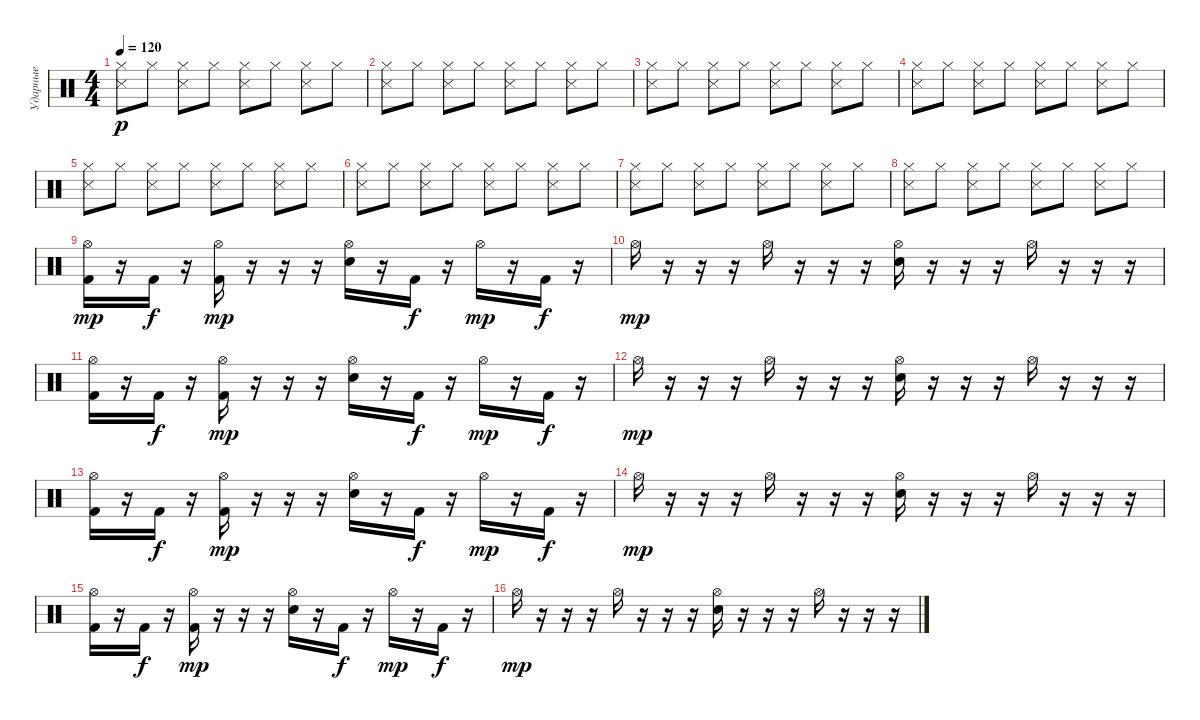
\track ("Ударные" "Ударные") {instrument percussion}
\staff {score}
\articulation defaults
\ts (4 4)
\tempo 120
\clef neutral
\ks c
("Snare (side stick) 3" "Hi-Hat (closed)").8{dy p} "Hi-Hat (closed)".8 ("Snare (side stick) 3" "Hi-Hat (closed)").8 "Hi-Hat (closed)".8 ("Snare (side stick) 3" "Hi-Hat (closed)").8 "Hi-Hat (closed)".8 ("Snare (side stick) 3" "Hi-Hat (closed)").8 "Hi-Hat (closed)".8 |
("Snare (side stick) 3" "Hi-Hat (closed)").8 "Hi-Hat (closed)".8 ("Snare (side stick) 3" "Hi-Hat (closed)").8 "Hi-Hat (closed)".8 ("Snare (side stick) 3" "Hi-Hat (closed)").8 "Hi-Hat (closed)".8 ("Snare (side stick) 3" "Hi-Hat (closed)").8 "Hi-Hat (closed)".8 |
("Snare (side stick) 3" "Hi-Hat (closed)").8 "Hi-Hat (closed)".8 ("Snare (side stick) 3" "Hi-Hat (closed)").8 "Hi-Hat (closed)".8 ("Snare (side stick) 3" "Hi-Hat (closed)").8 "Hi-Hat (closed)".8 ("Snare (side stick) 3" "Hi-Hat (closed)").8 "Hi-Hat (closed)".8 |
("Snare (side stick) 3" "Hi-Hat (closed)").8 "Hi-Hat (closed)".8 ("Snare (side stick) 3" "Hi-Hat (closed)").8 "Hi-Hat (closed)".8 ("Snare (side stick) 3" "Hi-Hat (closed)").8 "Hi-Hat (closed)".8 ("Snare (side stick) 3" "Hi-Hat (closed)").8 "Hi-Hat (closed)".8 |
("Snare (side stick) 3" "Hi-Hat (closed)").8 "Hi-Hat (closed)".8 ("Snare (side stick) 3" "Hi-Hat (closed)").8 "Hi-Hat (closed)".8 ("Snare (side stick) 3" "Hi-Hat (closed)").8 "Hi-Hat (closed)".8 ("Snare (side stick) 3" "Hi-Hat (closed)").8 "Hi-Hat (closed)".8 |
("Snare (side stick) 3" "Hi-Hat (closed)").8 "Hi-Hat (closed)".8 ("Snare (side stick) 3" "Hi-Hat (closed)").8 "Hi-Hat (closed)".8 ("Snare (side stick) 3" "Hi-Hat (closed)").8 "Hi-Hat (closed)".8 ("Snare (side stick) 3" "Hi-Hat (closed)").8 "Hi-Hat (closed)".8 |
("Snare (side stick) 3" "Hi-Hat (closed)").8 "Hi-Hat (closed)".8 ("Snare (side stick) 3" "Hi-Hat (closed)").8 "Hi-Hat (closed)".8 ("Snare (side stick) 3" "Hi-Hat (closed)").8 "Hi-Hat (closed)".8 ("Snare (side stick) 3" "Hi-Hat (closed)").8 "Hi-Hat (closed)".8 |
("Snare (side stick) 3" "Hi-Hat (closed)").8 "Hi-Hat (closed)".8 ("Snare (side stick) 3" "Hi-Hat (closed)").8 "Hi-Hat (closed)".8 ("Snare (side stick) 3" "Hi-Hat (closed)").8 "Hi-Hat (closed)".8 ("Snare (side stick) 3" "Hi-Hat (closed)").8 "Hi-Hat (closed)".8 |
("Kick (hit) 2" "Hi-Hat (open)").16{dy mp} r.16 "Kick (hit) 2".16{dy f} r.16 ("Kick (hit) 2" "Hi-Hat (open)").16{dy mp} r.16 r.16 r.16 ("Hi-Hat (open)" "Snare (hit) 2").16 r.16 "Kick (hit) 2".16{dy f} r.16 "Hi-Hat (open)".16{dy mp} r.16 "Kick (hit) 2".16{dy f} r.16 |
"Hi-Hat (open)".16{dy mp} r.16 r.16 r.16 "Hi-Hat (open)".16 r.16 r.16 r.16 ("Hi-Hat (open)" "Snare (hit) 2").16 r.16 r.16 r.16 "Hi-Hat (open)".16 r.16 r.16 r.16 |
("Kick (hit) 2" "Hi-Hat (open)").16 r.16 "Kick (hit) 2".16{dy f} r.16 ("Kick (hit) 2" "Hi-Hat (open)").16{dy mp} r.16 r.16 r.16 ("Hi-Hat (open)" "Snare (hit) 2").16 r.16 "Kick (hit) 2".16{dy f} r.16 "Hi-Hat (open)".16{dy mp} r.16 "Kick (hit) 2".16{dy f} r.16 |
"Hi-Hat (open)".16{dy mp} r.16 r.16 r.16 "Hi-Hat (open)".16 r.16 r.16 r.16 ("Hi-Hat (open)" "Snare (hit) 2").16 r.16 r.16 r.16 "Hi-Hat (open)".16 r.16 r.16 r.16 |
("Kick (hit) 2" "Hi-Hat (open)").16 r.16 "Kick (hit) 2".16{dy f} r.16 ("Kick (hit) 2" "Hi-Hat (open)").16{dy mp} r.16 r.16 r.16 ("Hi-Hat (open)" "Snare (hit) 2").16 r.16 "Kick (hit) 2".16{dy f} r.16 "Hi-Hat (open)".16{dy mp} r.16 "Kick (hit) 2".16{dy f} r.16 |
"Hi-Hat (open)".16{dy mp} r.16 r.16 r.16 "Hi-Hat (open)".16 r.16 r.16 r.16 ("Hi-Hat (open)" "Snare (hit) 2").16 r.16 r.16 r.16 "Hi-Hat (open)".16 r.16 r.16 r.16 |
("Kick (hit) 2" "Hi-Hat (open)").16 r.16 "Kick (hit) 2".16{dy f} r.16 ("Kick (hit) 2" "Hi-Hat (open)").16{dy mp} r.16 r.16 r.16 ("Hi-Hat (open)" "Snare (hit) 2").16 r.16 "Kick (hit) 2".16{dy f} r.16 "Hi-Hat (open)".16{dy mp} r.16 "Kick (hit) 2".16{dy f} r.16 |
"Hi-Hat (open)".16{dy mp} r.16 r.16 r.16 "Hi-Hat (open)".16 r.16 r.16 r.16 ("Hi-Hat (open)" "Snare (hit) 2").16 r.16 r.16 r.16 "Hi-Hat (open)".16 r.16 r.16 r.16
